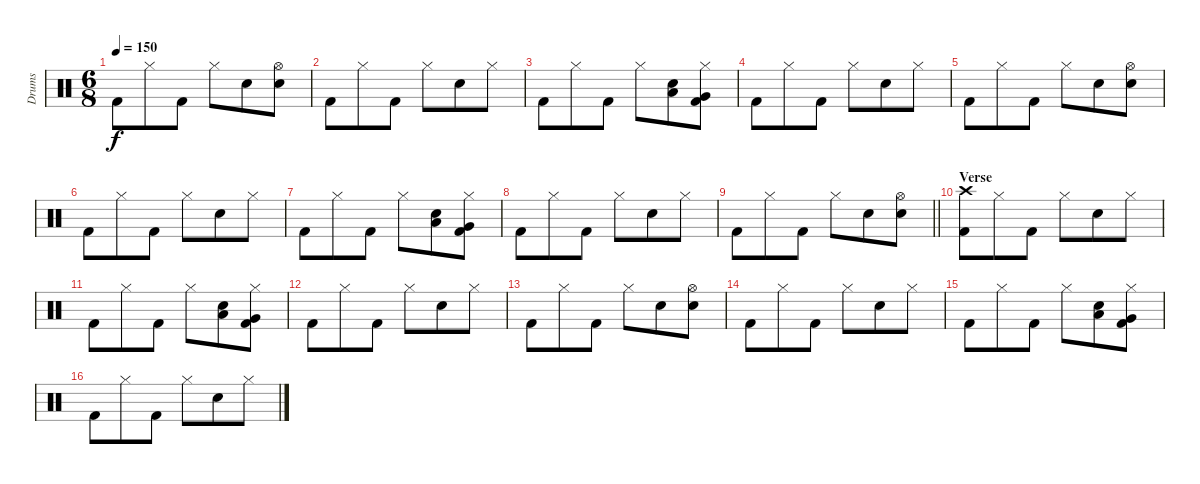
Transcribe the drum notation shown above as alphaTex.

\track ("Drums" "Drums") {mute instrument percussion}
\staff {score}
\articulation defaults
\ts (6 8)
\tempo 150
\clef neutral
\ks c "Kick (hit) 2".8{dy f} "Hi-Hat (closed)".8 "Kick (hit) 2".8 "Hi-Hat (closed)".8 "Electric Snare (hit)".8
("Hi-Hat (open)" "Electric Snare (hit)").8 |
"Kick (hit) 2".8 "Hi-Hat (closed)".8 "Kick (hit) 2".8 "Hi-Hat (closed)".8 "Electric Snare (hit)".8 "Hi-Hat (closed)".8 |
"Kick (hit) 2".8 "Hi-Hat (closed)".8 "Kick (hit) 2".8 "Hi-Hat (closed)".8 ("Low Tom (hit)" "Electric Snare (hit)").8 ("Very Low Tom (hit)" "Hi-Hat (closed)" "Kick (hit) 2").8 |
"Kick (hit) 2".8 "Hi-Hat (closed)".8 "Kick (hit) 2".8 "Hi-Hat (closed)".8 "Electric Snare (hit)".8 "Hi-Hat (closed)".8 |
"Kick (hit) 2".8 "Hi-Hat (closed)".8 "Kick (hit) 2".8 "Hi-Hat (closed)".8 "Electric Snare (hit)".8 ("Hi-Hat (open)" "Electric Snare (hit)").8 |
"Kick (hit) 2".8 "Hi-Hat (closed)".8 "Kick (hit) 2".8 "Hi-Hat (closed)".8 "Electric Snare (hit)".8 "Hi-Hat (closed)".8 |
"Kick (hit) 2".8 "Hi-Hat (closed)".8 "Kick (hit) 2".8 "Hi-Hat (closed)".8 ("Low Tom (hit)" "Electric Snare (hit)").8 ("Very Low Tom (hit)" "Hi-Hat (closed)" "Kick (hit) 2").8 |
"Kick (hit) 2".8 "Hi-Hat (closed)".8 "Kick (hit) 2".8 "Hi-Hat (closed)".8 "Electric Snare (hit)".8 "Hi-Hat (closed)".8 |
\barLineRight lightlight "Kick (hit) 2".8 "Hi-Hat (closed)".8 "Kick (hit) 2".8 "Hi-Hat (closed)".8 "Electric Snare (hit)".8
("Hi-Hat (open)" "Electric Snare (hit)").8 |
\section ("" "Verse")
("Crash high (hit)" "Kick (hit) 2").8 "Hi-Hat (closed)".8 "Kick (hit) 2".8 "Hi-Hat (closed)".8 "Electric Snare (hit)".8 "Hi-Hat (closed)".8 |
"Kick (hit) 2".8 "Hi-Hat (closed)".8 "Kick (hit) 2".8 "Hi-Hat (closed)".8 ("Low Tom (hit)" "Electric Snare (hit)").8 ("Very Low Tom (hit)" "Hi-Hat (closed)" "Kick (hit) 2").8 |
"Kick (hit) 2".8 "Hi-Hat (closed)".8 "Kick (hit) 2".8 "Hi-Hat (closed)".8 "Electric Snare (hit)".8 "Hi-Hat (closed)".8 |
"Kick (hit) 2".8 "Hi-Hat (closed)".8 "Kick (hit) 2".8 "Hi-Hat (closed)".8 "Electric Snare (hit)".8 ("Hi-Hat (open)" "Electric Snare (hit)").8 |
"Kick (hit) 2".8 "Hi-Hat (closed)".8 "Kick (hit) 2".8 "Hi-Hat (closed)".8 "Electric Snare (hit)".8 "Hi-Hat (closed)".8 |
"Kick (hit) 2".8 "Hi-Hat (closed)".8 "Kick (hit) 2".8 "Hi-Hat (closed)".8 ("Low Tom (hit)" "Electric Snare (hit)").8 ("Very Low Tom (hit)" "Hi-Hat (closed)" "Kick (hit) 2").8 |
"Kick (hit) 2".8 "Hi-Hat (closed)".8 "Kick (hit) 2".8 "Hi-Hat (closed)".8 "Electric Snare (hit)".8 "Hi-Hat (closed)".8
